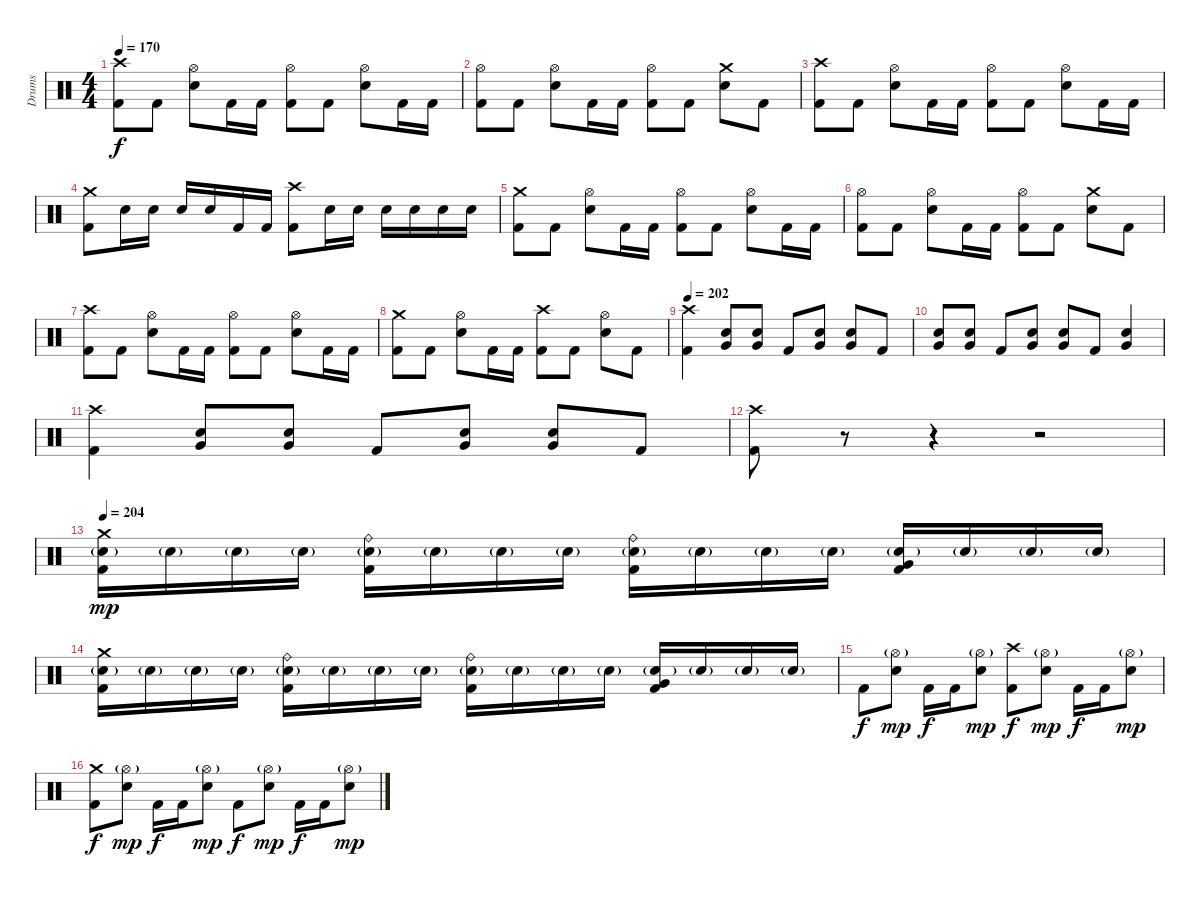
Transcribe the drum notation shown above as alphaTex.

\track ("Drums" "Drums") {instrument percussion}
\staff {score}
\articulation defaults
\ts (4 4)
\tempo 170
\clef neutral
\ks c
("Crash high (hit)" "Kick (hit) 2").8{dy f} "Kick (hit) 2".8 ("Hi-Hat (open)" "Electric Snare (hit)").8 "Kick (hit) 2".16 "Kick (hit) 2".16 ("Hi-Hat (open)" "Kick (hit) 2").8 "Kick (hit) 2".8 ("Hi-Hat (open)" "Electric Snare (hit)").8 "Kick (hit) 2".16 "Kick (hit) 2".16 |
("Hi-Hat (open)" "Kick (hit) 2").8 "Kick (hit) 2".8 ("Hi-Hat (open)" "Electric Snare (hit)").8 "Kick (hit) 2".16 "Kick (hit) 2".16 ("Hi-Hat (open)" "Kick (hit) 2").8 "Kick (hit) 2".8 ("Crash medium (hit)" "Electric Snare (hit)").8 "Kick (hit) 2".8 |
("Crash high (hit)" "Kick (hit) 2").8 "Kick (hit) 2".8 ("Hi-Hat (open)" "Electric Snare (hit)").8 "Kick (hit) 2".16 "Kick (hit) 2".16 ("Hi-Hat (open)" "Kick (hit) 2").8 "Kick (hit) 2".8 ("Hi-Hat (open)" "Electric Snare (hit)").8 "Kick (hit) 2".16 "Kick (hit) 2".16 |
("Crash medium (hit)" "Kick (hit) 2").8 "Electric Snare (hit)".16 "Electric Snare (hit)".16 "Electric Snare (hit)".16 "Electric Snare (hit)".16 "Kick (hit) 2".16 "Kick (hit) 2".16 ("Crash high (hit)" "Kick (hit) 2").8 "Electric Snare (hit)".16 "Electric Snare (hit)".16 "Electric Snare (hit)".16 "Electric Snare (hit)".16 "Electric Snare (hit)".16 "Electric Snare (hit)".16 |
("Crash medium (hit)" "Kick (hit) 2").8 "Kick (hit) 2".8 ("Hi-Hat (open)" "Electric Snare (hit)").8 "Kick (hit) 2".16 "Kick (hit) 2".16 ("Hi-Hat (open)" "Kick (hit) 2").8 "Kick (hit) 2".8 ("Hi-Hat (open)" "Electric Snare (hit)").8 "Kick (hit) 2".16 "Kick (hit) 2".16 |
("Hi-Hat (open)" "Kick (hit) 2").8 "Kick (hit) 2".8 ("Hi-Hat (open)" "Electric Snare (hit)").8 "Kick (hit) 2".16 "Kick (hit) 2".16 ("Hi-Hat (open)" "Kick (hit) 2").8 "Kick (hit) 2".8 ("Crash medium (hit)" "Electric Snare (hit)").8 "Kick (hit) 2".8 |
("Crash high (hit)" "Kick (hit) 2").8 "Kick (hit) 2".8 ("Hi-Hat (open)" "Electric Snare (hit)").8 "Kick (hit) 2".16 "Kick (hit) 2".16 ("Hi-Hat (open)" "Kick (hit) 2").8 "Kick (hit) 2".8 ("Hi-Hat (open)" "Electric Snare (hit)").8 "Kick (hit) 2".16 "Kick (hit) 2".16 |
("Crash medium (hit)" "Kick (hit) 2").8 "Kick (hit) 2".8 ("Hi-Hat (open)" "Electric Snare (hit)").8 "Kick (hit) 2".16 "Kick (hit) 2".16 ("Crash high (hit)" "Kick (hit) 2").8 "Kick (hit) 2".8 ("Hi-Hat (open)" "Electric Snare (hit)").8 "Kick (hit) 2".8 |
\tempo 202
("Crash high (hit)" "Kick (hit) 2").4 ("Electric Snare (hit)" "Very Low Tom (hit)").8 ("Electric Snare (hit)" "Very Low Tom (hit)").8 "Kick (hit) 2".8 ("Electric Snare (hit)" "Very Low Tom (hit)").8 ("Electric Snare (hit)" "Very Low Tom (hit)").8 "Kick (hit) 2".8 |
("Electric Snare (hit)" "Very Low Tom (hit)").8 ("Electric Snare (hit)" "Very Low Tom (hit)").8 "Kick (hit) 2".8 ("Electric Snare (hit)" "Very Low Tom (hit)").8 ("Electric Snare (hit)" "Very Low Tom (hit)").8 "Kick (hit) 2".8 ("Electric Snare (hit)" "Very Low Tom (hit)").4 |
("Crash high (hit)" "Kick (hit) 2").4 ("Electric Snare (hit)" "Very Low Tom (hit)").8 ("Electric Snare (hit)" "Very Low Tom (hit)").8 "Kick (hit) 2".8 ("Electric Snare (hit)" "Very Low Tom (hit)").8 ("Electric Snare (hit)" "Very Low Tom (hit)").8 "Kick (hit) 2".8 |
("Crash high (hit)" "Kick (hit) 2").8 r.8{volume 0} r.4 r.2 |
\tempo 204
("Crash medium (hit)" "Electric Snare (hit)"{g} "Kick (hit) 2").16{dy mp volume 13} "Electric Snare (hit)"{g}.16 "Electric Snare (hit)"{g}.16 "Electric Snare (hit)"{g}.16 ("Ride (bell)" "Electric Snare (hit)"{g} "Kick (hit) 2").16 "Electric Snare (hit)"{g}.16 "Electric Snare (hit)"{g}.16 "Electric Snare (hit)"{g}.16 ("Ride (bell)" "Electric Snare (hit)"{g} "Kick (hit) 2").16 "Electric Snare (hit)"{g}.16 "Electric Snare (hit)"{g}.16 "Electric Snare (hit)"{g}.16 ("Very Low Tom (hit)" "Electric Snare (hit)"{g} "Kick (hit) 2").16 "Electric Snare (hit)"{g}.16 "Electric Snare (hit)"{g}.16 "Electric Snare (hit)"{g}.16 |
("Crash medium (hit)" "Electric Snare (hit)"{g} "Kick (hit) 2").16 "Electric Snare (hit)"{g}.16 "Electric Snare (hit)"{g}.16 "Electric Snare (hit)"{g}.16 ("Ride (bell)" "Electric Snare (hit)"{g} "Kick (hit) 2").16 "Electric Snare (hit)"{g}.16 "Electric Snare (hit)"{g}.16 "Electric Snare (hit)"{g}.16 ("Ride (bell)" "Electric Snare (hit)"{g} "Kick (hit) 2").16 "Electric Snare (hit)"{g}.16 "Electric Snare (hit)"{g}.16 "Electric Snare (hit)"{g}.16 ("Very Low Tom (hit)" "Electric Snare (hit)"{g} "Kick (hit) 2").16 "Electric Snare (hit)"{g}.16 "Electric Snare (hit)"{g}.16 "Electric Snare (hit)"{g}.16 |
"Kick (hit) 2".8{dy f} ("Hi-Hat (open)"{g} "Electric Snare (hit)").8{dy mp} "Kick (hit) 2".16{dy f} "Kick (hit) 2".16 ("Hi-Hat (open)"{g} "Electric Snare (hit)").8{dy mp} ("Crash high (hit)" "Kick (hit) 2").8{dy f} ("Hi-Hat (open)"{g} "Electric Snare (hit)").8{dy mp} "Kick (hit) 2".16{dy f} "Kick (hit) 2".16 ("Hi-Hat (open)"{g} "Electric Snare (hit)").8{dy mp} |
("Crash medium (hit)" "Kick (hit) 2").8{dy f} ("Hi-Hat (open)"{g} "Electric Snare (hit)").8{dy mp} "Kick (hit) 2".16{dy f} "Kick (hit) 2".16 ("Hi-Hat (open)"{g} "Electric Snare (hit)").8{dy mp} "Kick (hit) 2".8{dy f} ("Hi-Hat (open)"{g} "Electric Snare (hit)").8{dy mp} "Kick (hit) 2".16{dy f} "Kick (hit) 2".16 ("Hi-Hat (open)"{g} "Electric Snare (hit)").8{dy mp}
